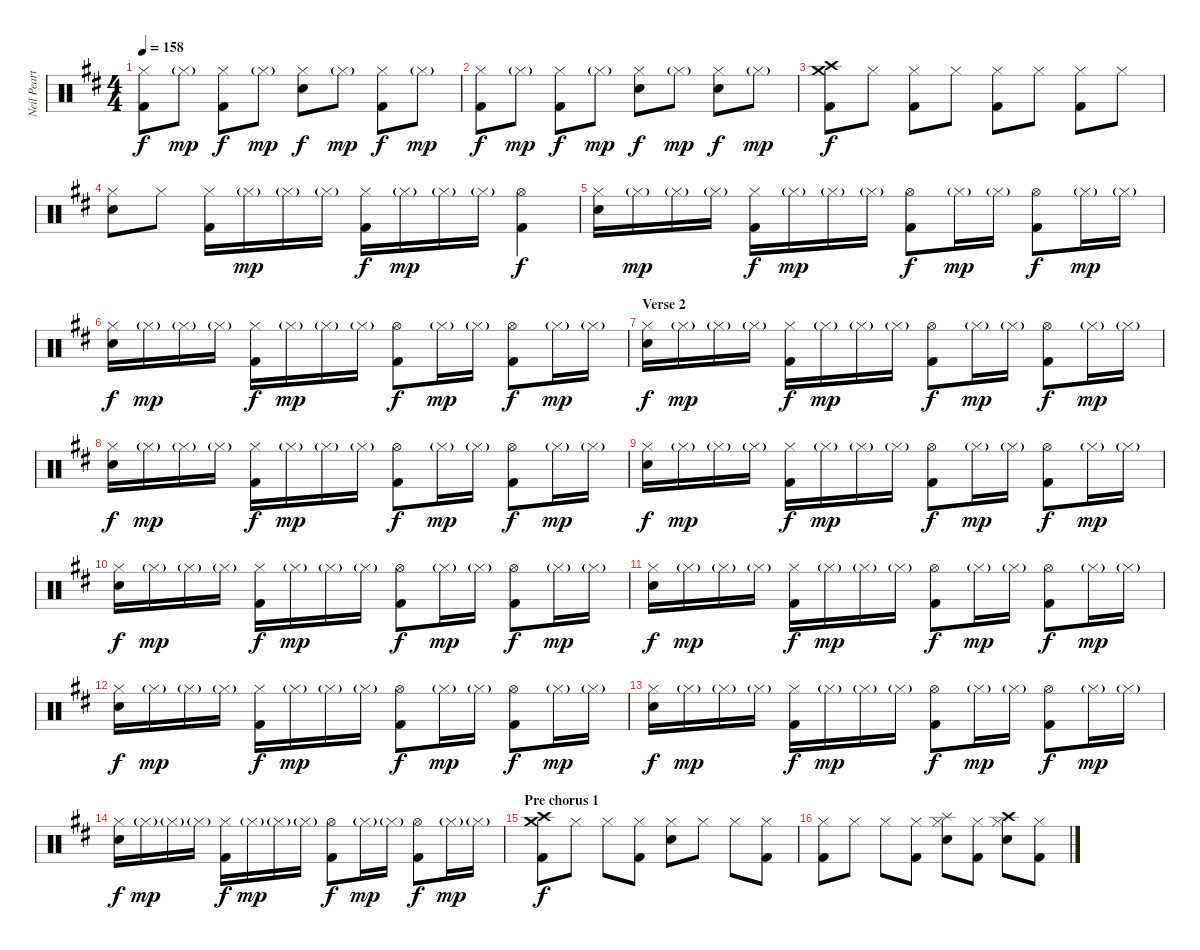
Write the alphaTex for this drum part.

\track ("Neil Peart (drums)" "Neil Peart") {instrument percussion}
\staff {score}
\articulation defaults
\ts (4 4)
\tempo 158
\clef neutral
\ks bminor
("Hi-Hat (closed)" "Kick (hit) 2").8{dy f} "Hi-Hat (closed)"{g}.8{dy mp} ("Hi-Hat (closed)" "Kick (hit) 2").8{dy f} "Hi-Hat (closed)"{g}.8{dy mp} ("Hi-Hat (closed)" "Electric Snare (hit)").8{dy f} "Hi-Hat (closed)"{g}.8{dy mp} ("Hi-Hat (closed)" "Kick (hit) 2").8{dy f} "Hi-Hat (closed)"{g}.8{dy mp} |
("Hi-Hat (closed)" "Kick (hit) 2").8{dy f} "Hi-Hat (closed)"{g}.8{dy mp} ("Hi-Hat (closed)" "Kick (hit) 2").8{dy f} "Hi-Hat (closed)"{g}.8{dy mp} ("Hi-Hat (closed)" "Electric Snare (hit)").8{dy f} "Hi-Hat (closed)"{g}.8{dy mp} ("Hi-Hat (closed)" "Electric Snare (hit)").8{dy f} "Hi-Hat (closed)"{g}.8{dy mp} |
("Crash high (hit)" "Crash medium (hit)" "Kick (hit) 2").8{dy f} "Hi-Hat (closed)".8 ("Hi-Hat (closed)" "Kick (hit) 2").8 "Hi-Hat (closed)".8 ("Hi-Hat (closed)" "Kick (hit) 2").8 "Hi-Hat (closed)".8 ("Hi-Hat (closed)" "Kick (hit) 2").8 "Hi-Hat (closed)".8 |
("Hi-Hat (closed)" "Electric Snare (hit)").8 "Hi-Hat (closed)".8 ("Hi-Hat (closed)" "Kick (hit) 2").16 "Hi-Hat (closed)"{g}.16{dy mp} "Hi-Hat (closed)"{g}.16 "Hi-Hat (closed)"{g}.16 ("Hi-Hat (closed)" "Kick (hit) 2").16{dy f} "Hi-Hat (closed)"{g}.16{dy mp} "Hi-Hat (closed)"{g}.16 "Hi-Hat (closed)"{g}.16 ("Hi-Hat (open)" "Kick (hit) 2").4{dy f} |
("Hi-Hat (closed)" "Electric Snare (hit)").16 "Hi-Hat (closed)"{g}.16{dy mp} "Hi-Hat (closed)"{g}.16 "Hi-Hat (closed)"{g}.16 ("Hi-Hat (closed)" "Kick (hit) 2").16{dy f} "Hi-Hat (closed)"{g}.16{dy mp} "Hi-Hat (closed)"{g}.16 "Hi-Hat (closed)"{g}.16 ("Hi-Hat (open)" "Kick (hit) 2").8{dy f} "Hi-Hat (closed)"{g}.16{dy mp} "Hi-Hat (closed)"{g}.16 ("Hi-Hat (open)" "Kick (hit) 2").8{dy f} "Hi-Hat (closed)"{g}.16{dy mp} "Hi-Hat (closed)"{g}.16 |
("Hi-Hat (closed)" "Electric Snare (hit)").16{dy f} "Hi-Hat (closed)"{g}.16{dy mp} "Hi-Hat (closed)"{g}.16 "Hi-Hat (closed)"{g}.16 ("Hi-Hat (closed)" "Kick (hit) 2").16{dy f} "Hi-Hat (closed)"{g}.16{dy mp} "Hi-Hat (closed)"{g}.16 "Hi-Hat (closed)"{g}.16 ("Hi-Hat (open)" "Kick (hit) 2").8{dy f} "Hi-Hat (closed)"{g}.16{dy mp} "Hi-Hat (closed)"{g}.16 ("Hi-Hat (open)" "Kick (hit) 2").8{dy f} "Hi-Hat (closed)"{g}.16{dy mp} "Hi-Hat (closed)"{g}.16 |
\section ("" "Verse 2")
("Hi-Hat (closed)" "Electric Snare (hit)").16{dy f} "Hi-Hat (closed)"{g}.16{dy mp} "Hi-Hat (closed)"{g}.16 "Hi-Hat (closed)"{g}.16 ("Hi-Hat (closed)" "Kick (hit) 2").16{dy f} "Hi-Hat (closed)"{g}.16{dy mp} "Hi-Hat (closed)"{g}.16 "Hi-Hat (closed)"{g}.16 ("Hi-Hat (open)" "Kick (hit) 2").8{dy f} "Hi-Hat (closed)"{g}.16{dy mp} "Hi-Hat (closed)"{g}.16 ("Hi-Hat (open)" "Kick (hit) 2").8{dy f} "Hi-Hat (closed)"{g}.16{dy mp} "Hi-Hat (closed)"{g}.16 |
("Hi-Hat (closed)" "Electric Snare (hit)").16{dy f} "Hi-Hat (closed)"{g}.16{dy mp} "Hi-Hat (closed)"{g}.16 "Hi-Hat (closed)"{g}.16 ("Hi-Hat (closed)" "Kick (hit) 2").16{dy f} "Hi-Hat (closed)"{g}.16{dy mp} "Hi-Hat (closed)"{g}.16 "Hi-Hat (closed)"{g}.16 ("Hi-Hat (open)" "Kick (hit) 2").8{dy f} "Hi-Hat (closed)"{g}.16{dy mp} "Hi-Hat (closed)"{g}.16 ("Hi-Hat (open)" "Kick (hit) 2").8{dy f} "Hi-Hat (closed)"{g}.16{dy mp} "Hi-Hat (closed)"{g}.16 |
("Hi-Hat (closed)" "Electric Snare (hit)").16{dy f} "Hi-Hat (closed)"{g}.16{dy mp} "Hi-Hat (closed)"{g}.16 "Hi-Hat (closed)"{g}.16 ("Hi-Hat (closed)" "Kick (hit) 2").16{dy f} "Hi-Hat (closed)"{g}.16{dy mp} "Hi-Hat (closed)"{g}.16 "Hi-Hat (closed)"{g}.16 ("Hi-Hat (open)" "Kick (hit) 2").8{dy f} "Hi-Hat (closed)"{g}.16{dy mp} "Hi-Hat (closed)"{g}.16 ("Hi-Hat (open)" "Kick (hit) 2").8{dy f} "Hi-Hat (closed)"{g}.16{dy mp} "Hi-Hat (closed)"{g}.16 |
("Hi-Hat (closed)" "Electric Snare (hit)").16{dy f} "Hi-Hat (closed)"{g}.16{dy mp} "Hi-Hat (closed)"{g}.16 "Hi-Hat (closed)"{g}.16 ("Hi-Hat (closed)" "Kick (hit) 2").16{dy f} "Hi-Hat (closed)"{g}.16{dy mp} "Hi-Hat (closed)"{g}.16 "Hi-Hat (closed)"{g}.16 ("Hi-Hat (open)" "Kick (hit) 2").8{dy f} "Hi-Hat (closed)"{g}.16{dy mp} "Hi-Hat (closed)"{g}.16 ("Hi-Hat (open)" "Kick (hit) 2").8{dy f} "Hi-Hat (closed)"{g}.16{dy mp} "Hi-Hat (closed)"{g}.16 |
("Hi-Hat (closed)" "Electric Snare (hit)").16{dy f} "Hi-Hat (closed)"{g}.16{dy mp} "Hi-Hat (closed)"{g}.16 "Hi-Hat (closed)"{g}.16 ("Hi-Hat (closed)" "Kick (hit) 2").16{dy f} "Hi-Hat (closed)"{g}.16{dy mp} "Hi-Hat (closed)"{g}.16 "Hi-Hat (closed)"{g}.16 ("Hi-Hat (open)" "Kick (hit) 2").8{dy f} "Hi-Hat (closed)"{g}.16{dy mp} "Hi-Hat (closed)"{g}.16 ("Hi-Hat (open)" "Kick (hit) 2").8{dy f} "Hi-Hat (closed)"{g}.16{dy mp} "Hi-Hat (closed)"{g}.16 |
("Hi-Hat (closed)" "Electric Snare (hit)").16{dy f} "Hi-Hat (closed)"{g}.16{dy mp} "Hi-Hat (closed)"{g}.16 "Hi-Hat (closed)"{g}.16 ("Hi-Hat (closed)" "Kick (hit) 2").16{dy f} "Hi-Hat (closed)"{g}.16{dy mp} "Hi-Hat (closed)"{g}.16 "Hi-Hat (closed)"{g}.16 ("Hi-Hat (open)" "Kick (hit) 2").8{dy f} "Hi-Hat (closed)"{g}.16{dy mp} "Hi-Hat (closed)"{g}.16 ("Hi-Hat (open)" "Kick (hit) 2").8{dy f} "Hi-Hat (closed)"{g}.16{dy mp} "Hi-Hat (closed)"{g}.16 |
("Hi-Hat (closed)" "Electric Snare (hit)").16{dy f} "Hi-Hat (closed)"{g}.16{dy mp} "Hi-Hat (closed)"{g}.16 "Hi-Hat (closed)"{g}.16 ("Hi-Hat (closed)" "Kick (hit) 2").16{dy f} "Hi-Hat (closed)"{g}.16{dy mp} "Hi-Hat (closed)"{g}.16 "Hi-Hat (closed)"{g}.16 ("Hi-Hat (open)" "Kick (hit) 2").8{dy f} "Hi-Hat (closed)"{g}.16{dy mp} "Hi-Hat (closed)"{g}.16 ("Hi-Hat (open)" "Kick (hit) 2").8{dy f} "Hi-Hat (closed)"{g}.16{dy mp} "Hi-Hat (closed)"{g}.16 |
("Hi-Hat (closed)" "Electric Snare (hit)").16{dy f} "Hi-Hat (closed)"{g}.16{dy mp} "Hi-Hat (closed)"{g}.16 "Hi-Hat (closed)"{g}.16 ("Hi-Hat (closed)" "Kick (hit) 2").16{dy f} "Hi-Hat (closed)"{g}.16{dy mp} "Hi-Hat (closed)"{g}.16 "Hi-Hat (closed)"{g}.16 ("Hi-Hat (open)" "Kick (hit) 2").8{dy f} "Hi-Hat (closed)"{g}.16{dy mp} "Hi-Hat (closed)"{g}.16 ("Hi-Hat (open)" "Kick (hit) 2").8{dy f} "Hi-Hat (closed)"{g}.16{dy mp} "Hi-Hat (closed)"{g}.16 |
\section ("" "Pre chorus 1")
("Crash high (hit)" "Crash medium (hit)" "Kick (hit) 2").8{dy f} "Hi-Hat (closed)".8 "Hi-Hat (closed)".8 ("Hi-Hat (closed)" "Kick (hit) 2").8 ("Hi-Hat (closed)" "Electric Snare (hit)").8 "Hi-Hat (closed)".8 "Hi-Hat (closed)".8 ("Hi-Hat (closed)" "Kick (hit) 2").8 |
("Hi-Hat (closed)" "Kick (hit) 2").8 "Hi-Hat (closed)".8 "Hi-Hat (closed)".8 ("Hi-Hat (closed)" "Kick (hit) 2").8 ("Splash (hit)" "Hi-Hat (closed)" "Electric Snare (hit)").8 ("Hi-Hat (closed)" "Kick (hit) 2").8 ("Crash high (hit)" "Hi-Hat (closed)" "Electric Snare (hit)").8 ("Hi-Hat (closed)" "Kick (hit) 2").8
